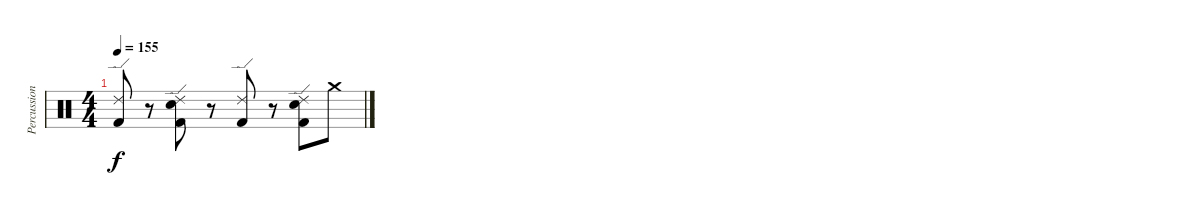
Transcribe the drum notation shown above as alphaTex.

\track ("Percussion" "Percussion") {instrument percussion}
\staff {score}
\articulation defaults
\ts (4 4)
\tempo 155
\clef neutral
\ks c
("Ride (edge) 2" "Kick (hit) 2").8{dy f} r.8 ("Ride (edge) 2" "Snare (hit) 2" "Kick (hit) 2").8 r.8 ("Ride (edge) 2" "Kick (hit) 2").8 r.8 ("Ride (edge) 2" "Snare (hit) 2" "Kick (hit) 2").8 "Crash medium (hit)".8
